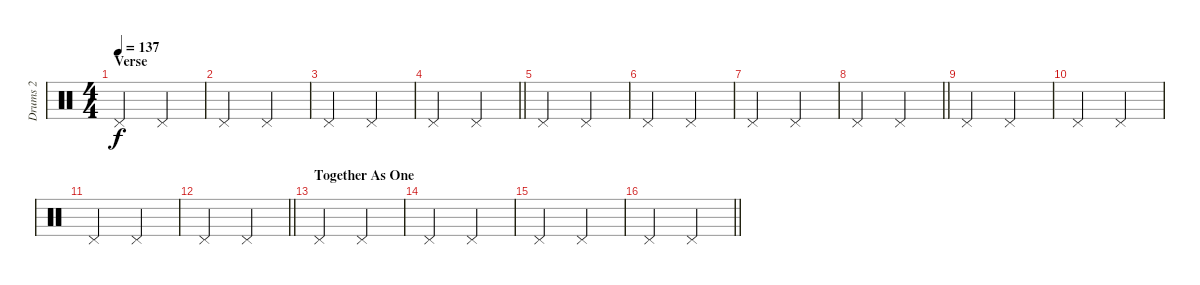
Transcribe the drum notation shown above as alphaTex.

\track ("Drums 2" "Drums 2") {instrument percussion}
\staff {score}
\articulation defaults
\ts (4 4)
\section ("" "Verse")
\tempo 137
\clef neutral
\ks c "Pedal Hi-Hat (hit)".2{dy f} "Pedal Hi-Hat (hit)".2
|
"Pedal Hi-Hat (hit)".2 "Pedal Hi-Hat (hit)".2 |
"Pedal Hi-Hat (hit)".2 "Pedal Hi-Hat (hit)".2 |
\barLineRight lightlight "Pedal Hi-Hat (hit)".2 "Pedal Hi-Hat (hit)".2
|
"Pedal Hi-Hat (hit)".2 "Pedal Hi-Hat (hit)".2 |
"Pedal Hi-Hat (hit)".2 "Pedal Hi-Hat (hit)".2 |
"Pedal Hi-Hat (hit)".2 "Pedal Hi-Hat (hit)".2 |
\barLineRight lightlight "Pedal Hi-Hat (hit)".2 "Pedal Hi-Hat (hit)".2
|
"Pedal Hi-Hat (hit)".2 "Pedal Hi-Hat (hit)".2 |
"Pedal Hi-Hat (hit)".2 "Pedal Hi-Hat (hit)".2 |
"Pedal Hi-Hat (hit)".2 "Pedal Hi-Hat (hit)".2 |
\barLineRight lightlight "Pedal Hi-Hat (hit)".2 "Pedal Hi-Hat (hit)".2
|
\section ("" "Together As One")
"Pedal Hi-Hat (hit)".2 "Pedal Hi-Hat (hit)".2 |
"Pedal Hi-Hat (hit)".2 "Pedal Hi-Hat (hit)".2 |
"Pedal Hi-Hat (hit)".2 "Pedal Hi-Hat (hit)".2 |
\barLineRight lightlight "Pedal Hi-Hat (hit)".2 "Pedal Hi-Hat (hit)".2
